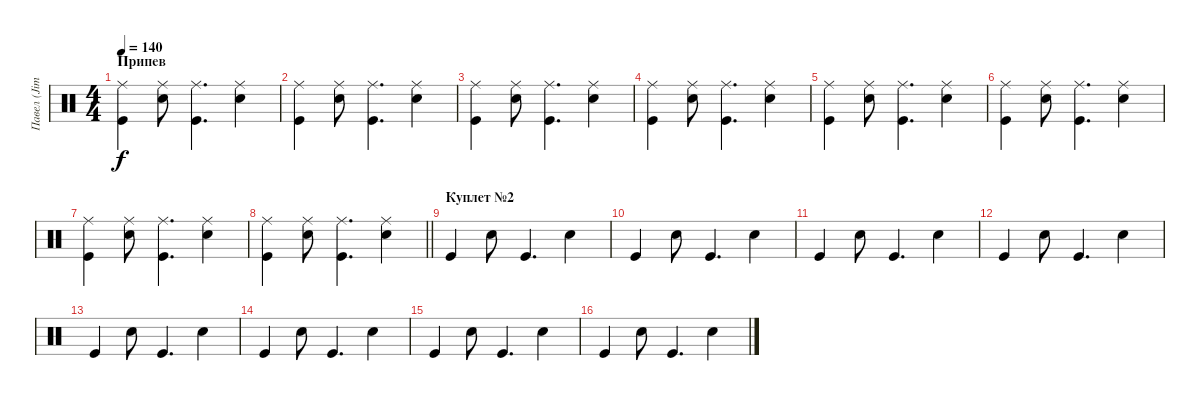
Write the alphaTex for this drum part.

\track ("Павел (Jimmy) Лохнин" "Павел (Jim") {instrument percussion}
\staff {score}
\articulation defaults
\ts (4 4)
\section ("" "Припев")
\tempo 140
\clef neutral
\ks c
("Ride (middle)" "Kick (hit)").4{dy f} ("Ride (middle)" "Snare (hit) 2").8 ("Ride (middle)" "Kick (hit)").4{d} ("Ride (middle)" "Snare (hit) 2").4 |
("Ride (middle)" "Kick (hit)").4 ("Ride (middle)" "Snare (hit) 2").8 ("Ride (middle)" "Kick (hit)").4{d} ("Ride (middle)" "Snare (hit) 2").4 |
("Ride (middle)" "Kick (hit)").4 ("Ride (middle)" "Snare (hit) 2").8 ("Ride (middle)" "Kick (hit)").4{d} ("Ride (middle)" "Snare (hit) 2").4 |
("Ride (middle)" "Kick (hit)").4 ("Ride (middle)" "Snare (hit) 2").8 ("Ride (middle)" "Kick (hit)").4{d} ("Ride (middle)" "Snare (hit) 2").4 |
("Ride (middle)" "Kick (hit)").4 ("Ride (middle)" "Snare (hit) 2").8 ("Ride (middle)" "Kick (hit)").4{d} ("Ride (middle)" "Snare (hit) 2").4 |
("Ride (middle)" "Kick (hit)").4 ("Ride (middle)" "Snare (hit) 2").8 ("Ride (middle)" "Kick (hit)").4{d} ("Ride (middle)" "Snare (hit) 2").4 |
("Ride (middle)" "Kick (hit)").4 ("Ride (middle)" "Snare (hit) 2").8 ("Ride (middle)" "Kick (hit)").4{d} ("Ride (middle)" "Snare (hit) 2").4 |
\barLineRight lightlight
("Ride (middle)" "Kick (hit)").4 ("Ride (middle)" "Snare (hit) 2").8 ("Ride (middle)" "Kick (hit)").4{d} ("Ride (middle)" "Snare (hit) 2").4 |
\section ("" "Куплет №2")
"Kick (hit)".4 "Snare (hit) 2".8 "Kick (hit)".4{d} "Snare (hit) 2".4 |
"Kick (hit)".4 "Snare (hit) 2".8 "Kick (hit)".4{d} "Snare (hit) 2".4 |
"Kick (hit)".4 "Snare (hit) 2".8 "Kick (hit)".4{d} "Snare (hit) 2".4 |
"Kick (hit)".4 "Snare (hit) 2".8 "Kick (hit)".4{d} "Snare (hit) 2".4 |
"Kick (hit)".4 "Snare (hit) 2".8 "Kick (hit)".4{d} "Snare (hit) 2".4 |
"Kick (hit)".4 "Snare (hit) 2".8 "Kick (hit)".4{d} "Snare (hit) 2".4 |
"Kick (hit)".4 "Snare (hit) 2".8 "Kick (hit)".4{d} "Snare (hit) 2".4 |
"Kick (hit)".4 "Snare (hit) 2".8 "Kick (hit)".4{d} "Snare (hit) 2".4
